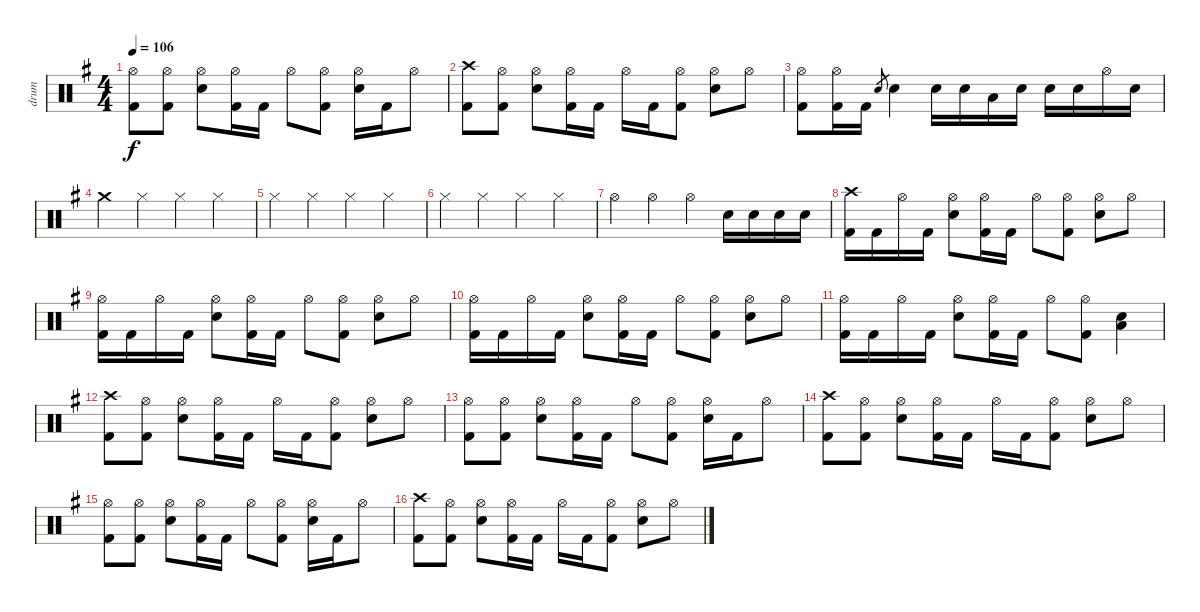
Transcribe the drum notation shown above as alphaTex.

\track ("drum" "drum") {instrument percussion}
\staff {score}
\articulation defaults
\ts (4 4)
\tempo 106
\clef neutral
\ks eminor
("Hi-Hat (open)" "Kick (hit) 2").8{dy f} ("Hi-Hat (open)" "Kick (hit) 2").8 ("Hi-Hat (open)" "Electric Snare (hit)").8 ("Hi-Hat (open)" "Kick (hit) 2").16 "Kick (hit) 2".16 "Hi-Hat (open)".8 ("Hi-Hat (open)" "Kick (hit) 2").8 ("Hi-Hat (open)" "Electric Snare (hit)").16 "Kick (hit) 2".16 "Hi-Hat (open)".8 |
("Crash high (hit)" "Kick (hit) 2").8 ("Hi-Hat (open)" "Kick (hit) 2").8 ("Hi-Hat (open)" "Electric Snare (hit)").8 ("Hi-Hat (open)" "Kick (hit) 2").16 "Kick (hit) 2".16 "Hi-Hat (open)".16 "Kick (hit) 2".16 ("Hi-Hat (open)" "Kick (hit) 2").8 ("Hi-Hat (open)" "Electric Snare (hit)").8 "Hi-Hat (open)".8 |
("Hi-Hat (open)" "Kick (hit) 2").8 ("Hi-Hat (open)" "Kick (hit) 2").16 "Kick (hit) 2".16 "Electric Snare (hit)".8{gr} "Electric Snare (hit)".4 "Electric Snare (hit)".16 "Electric Snare (hit)".16 "Low Tom (hit)".16 "Electric Snare (hit)".16 "Electric Snare (hit)".16 "Electric Snare (hit)".16 "Hi-Hat (open)".16 "Electric Snare (hit)".16 |
"Crash medium (hit)".4 "Hi-Hat (closed)".4 "Hi-Hat (closed)".4 "Hi-Hat (closed)".4 |
"Hi-Hat (closed)".4 "Hi-Hat (closed)".4 "Hi-Hat (closed)".4 "Hi-Hat (closed)".4 |
"Hi-Hat (closed)".4 "Hi-Hat (closed)".4 "Hi-Hat (closed)".4 "Hi-Hat (closed)".4 |
"Hi-Hat (open)".4 "Hi-Hat (open)".4 "Hi-Hat (open)".4 "Electric Snare (hit)".16 "Electric Snare (hit)".16 "Electric Snare (hit)".16 "Electric Snare (hit)".16 |
("Crash high (hit)" "Kick (hit) 2").16 "Kick (hit) 2".16 "Hi-Hat (open)".16 "Kick (hit) 2".16 ("Hi-Hat (open)" "Electric Snare (hit)").8 ("Hi-Hat (open)" "Kick (hit) 2").16 "Kick (hit) 2".16 "Hi-Hat (open)".8 ("Hi-Hat (open)" "Kick (hit) 2").8 ("Hi-Hat (open)" "Electric Snare (hit)").8 "Hi-Hat (open)".8 |
("Hi-Hat (open)" "Kick (hit) 2").16 "Kick (hit) 2".16 "Hi-Hat (open)".16 "Kick (hit) 2".16 ("Hi-Hat (open)" "Electric Snare (hit)").8 ("Hi-Hat (open)" "Kick (hit) 2").16 "Kick (hit) 2".16 "Hi-Hat (open)".8 ("Hi-Hat (open)" "Kick (hit) 2").8 ("Hi-Hat (open)" "Electric Snare (hit)").8 "Hi-Hat (open)".8 |
("Hi-Hat (open)" "Kick (hit) 2").16 "Kick (hit) 2".16 "Hi-Hat (open)".16 "Kick (hit) 2".16 ("Hi-Hat (open)" "Electric Snare (hit)").8 ("Hi-Hat (open)" "Kick (hit) 2").16 "Kick (hit) 2".16 "Hi-Hat (open)".8 ("Hi-Hat (open)" "Kick (hit) 2").8 ("Hi-Hat (open)" "Electric Snare (hit)").8 "Hi-Hat (open)".8 |
("Hi-Hat (open)" "Kick (hit) 2").16 "Kick (hit) 2".16 "Hi-Hat (open)".16 "Kick (hit) 2".16 ("Hi-Hat (open)" "Electric Snare (hit)").8 ("Hi-Hat (open)" "Kick (hit) 2").16 "Kick (hit) 2".16 "Hi-Hat (open)".8 ("Hi-Hat (open)" "Kick (hit) 2").8 ("Low Floor Tom (hit)" "Electric Snare (hit)").4 |
("Crash high (hit)" "Kick (hit) 2").8 ("Hi-Hat (open)" "Kick (hit) 2").8 ("Hi-Hat (open)" "Electric Snare (hit)").8 ("Hi-Hat (open)" "Kick (hit) 2").16 "Kick (hit) 2".16 "Hi-Hat (open)".16 "Kick (hit) 2".16 ("Hi-Hat (open)" "Kick (hit) 2").8 ("Hi-Hat (open)" "Electric Snare (hit)").8 "Hi-Hat (open)".8 |
("Hi-Hat (open)" "Kick (hit) 2").8 ("Hi-Hat (open)" "Kick (hit) 2").8 ("Hi-Hat (open)" "Electric Snare (hit)").8 ("Hi-Hat (open)" "Kick (hit) 2").16 "Kick (hit) 2".16 "Hi-Hat (open)".8 ("Hi-Hat (open)" "Kick (hit) 2").8 ("Hi-Hat (open)" "Electric Snare (hit)").16 "Kick (hit) 2".16 "Hi-Hat (open)".8 |
("Crash high (hit)" "Kick (hit) 2").8 ("Hi-Hat (open)" "Kick (hit) 2").8 ("Hi-Hat (open)" "Electric Snare (hit)").8 ("Hi-Hat (open)" "Kick (hit) 2").16 "Kick (hit) 2".16 "Hi-Hat (open)".16 "Kick (hit) 2".16 ("Hi-Hat (open)" "Kick (hit) 2").8 ("Hi-Hat (open)" "Electric Snare (hit)").8 "Hi-Hat (open)".8 |
("Hi-Hat (open)" "Kick (hit) 2").8 ("Hi-Hat (open)" "Kick (hit) 2").8 ("Hi-Hat (open)" "Electric Snare (hit)").8 ("Hi-Hat (open)" "Kick (hit) 2").16 "Kick (hit) 2".16 "Hi-Hat (open)".8 ("Hi-Hat (open)" "Kick (hit) 2").8 ("Hi-Hat (open)" "Electric Snare (hit)").16 "Kick (hit) 2".16 "Hi-Hat (open)".8 |
("Crash high (hit)" "Kick (hit) 2").8 ("Hi-Hat (open)" "Kick (hit) 2").8 ("Hi-Hat (open)" "Electric Snare (hit)").8 ("Hi-Hat (open)" "Kick (hit) 2").16 "Kick (hit) 2".16 "Hi-Hat (open)".16 "Kick (hit) 2".16 ("Hi-Hat (open)" "Kick (hit) 2").8 ("Hi-Hat (open)" "Electric Snare (hit)").8 "Hi-Hat (open)".8
